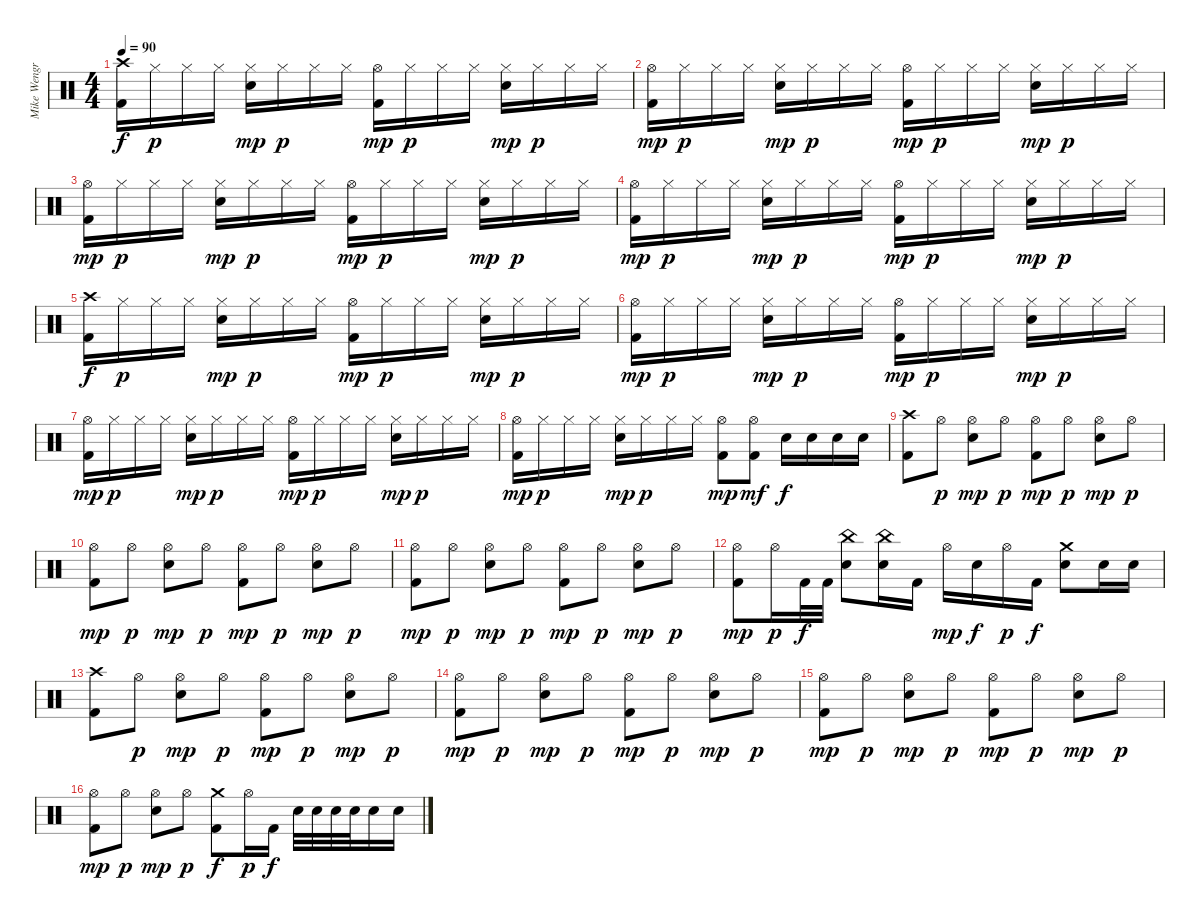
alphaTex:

\track ("Mike Wengren - Drums" "Mike Wengr") {instrument percussion}
\staff {score}
\articulation defaults
\ts (4 4)
\tempo 90
\clef neutral
\ks c
("Crash high (hit)" "Kick (hit) 2").16{dy f} "Hi-Hat (closed)".16{dy p} "Hi-Hat (closed)".16 "Hi-Hat (closed)".16 ("Hi-Hat (closed)" "Electric Snare (hit)").16{dy mp} "Hi-Hat (closed)".16{dy p} "Hi-Hat (closed)".16 "Hi-Hat (closed)".16 ("Hi-Hat (open)" "Kick (hit) 2").16{dy mp} "Hi-Hat (closed)".16{dy p} "Hi-Hat (closed)".16 "Hi-Hat (closed)".16 ("Hi-Hat (closed)" "Electric Snare (hit)").16{dy mp} "Hi-Hat (closed)".16{dy p} "Hi-Hat (closed)".16 "Hi-Hat (closed)".16 |
("Hi-Hat (open)" "Kick (hit) 2").16{dy mp} "Hi-Hat (closed)".16{dy p} "Hi-Hat (closed)".16 "Hi-Hat (closed)".16 ("Hi-Hat (closed)" "Electric Snare (hit)").16{dy mp} "Hi-Hat (closed)".16{dy p} "Hi-Hat (closed)".16 "Hi-Hat (closed)".16 ("Hi-Hat (open)" "Kick (hit) 2").16{dy mp} "Hi-Hat (closed)".16{dy p} "Hi-Hat (closed)".16 "Hi-Hat (closed)".16 ("Hi-Hat (closed)" "Electric Snare (hit)").16{dy mp} "Hi-Hat (closed)".16{dy p} "Hi-Hat (closed)".16 "Hi-Hat (closed)".16 |
("Hi-Hat (open)" "Kick (hit) 2").16{dy mp} "Hi-Hat (closed)".16{dy p} "Hi-Hat (closed)".16 "Hi-Hat (closed)".16 ("Hi-Hat (closed)" "Electric Snare (hit)").16{dy mp} "Hi-Hat (closed)".16{dy p} "Hi-Hat (closed)".16 "Hi-Hat (closed)".16 ("Hi-Hat (open)" "Kick (hit) 2").16{dy mp} "Hi-Hat (closed)".16{dy p} "Hi-Hat (closed)".16 "Hi-Hat (closed)".16 ("Hi-Hat (closed)" "Electric Snare (hit)").16{dy mp} "Hi-Hat (closed)".16{dy p} "Hi-Hat (closed)".16 "Hi-Hat (closed)".16 |
("Hi-Hat (open)" "Kick (hit) 2").16{dy mp} "Hi-Hat (closed)".16{dy p} "Hi-Hat (closed)".16 "Hi-Hat (closed)".16 ("Hi-Hat (closed)" "Electric Snare (hit)").16{dy mp} "Hi-Hat (closed)".16{dy p} "Hi-Hat (closed)".16 "Hi-Hat (closed)".16 ("Hi-Hat (open)" "Kick (hit) 2").16{dy mp} "Hi-Hat (closed)".16{dy p} "Hi-Hat (closed)".16 "Hi-Hat (closed)".16 ("Hi-Hat (closed)" "Electric Snare (hit)").16{dy mp} "Hi-Hat (closed)".16{dy p} "Hi-Hat (closed)".16 "Hi-Hat (closed)".16 |
("Crash high (hit)" "Kick (hit) 2").16{dy f} "Hi-Hat (closed)".16{dy p} "Hi-Hat (closed)".16 "Hi-Hat (closed)".16 ("Hi-Hat (closed)" "Electric Snare (hit)").16{dy mp} "Hi-Hat (closed)".16{dy p} "Hi-Hat (closed)".16 "Hi-Hat (closed)".16 ("Hi-Hat (open)" "Kick (hit) 2").16{dy mp} "Hi-Hat (closed)".16{dy p} "Hi-Hat (closed)".16 "Hi-Hat (closed)".16 ("Hi-Hat (closed)" "Electric Snare (hit)").16{dy mp} "Hi-Hat (closed)".16{dy p} "Hi-Hat (closed)".16 "Hi-Hat (closed)".16 |
("Hi-Hat (open)" "Kick (hit) 2").16{dy mp} "Hi-Hat (closed)".16{dy p} "Hi-Hat (closed)".16 "Hi-Hat (closed)".16 ("Hi-Hat (closed)" "Electric Snare (hit)").16{dy mp} "Hi-Hat (closed)".16{dy p} "Hi-Hat (closed)".16 "Hi-Hat (closed)".16 ("Hi-Hat (open)" "Kick (hit) 2").16{dy mp} "Hi-Hat (closed)".16{dy p} "Hi-Hat (closed)".16 "Hi-Hat (closed)".16 ("Hi-Hat (closed)" "Electric Snare (hit)").16{dy mp} "Hi-Hat (closed)".16{dy p} "Hi-Hat (closed)".16 "Hi-Hat (closed)".16 |
("Hi-Hat (open)" "Kick (hit) 2").16{dy mp} "Hi-Hat (closed)".16{dy p} "Hi-Hat (closed)".16 "Hi-Hat (closed)".16 ("Hi-Hat (closed)" "Electric Snare (hit)").16{dy mp} "Hi-Hat (closed)".16{dy p} "Hi-Hat (closed)".16 "Hi-Hat (closed)".16 ("Hi-Hat (open)" "Kick (hit) 2").16{dy mp} "Hi-Hat (closed)".16{dy p} "Hi-Hat (closed)".16 "Hi-Hat (closed)".16 ("Hi-Hat (closed)" "Electric Snare (hit)").16{dy mp} "Hi-Hat (closed)".16{dy p} "Hi-Hat (closed)".16 "Hi-Hat (closed)".16 |
("Hi-Hat (open)" "Kick (hit) 2").16{dy mp} "Hi-Hat (closed)".16{dy p} "Hi-Hat (closed)".16 "Hi-Hat (closed)".16 ("Hi-Hat (closed)" "Electric Snare (hit)").16{dy mp} "Hi-Hat (closed)".16{dy p} "Hi-Hat (closed)".16 "Hi-Hat (closed)".16 ("Hi-Hat (open)" "Kick (hit) 2").8{dy mp} ("Hi-Hat (open)" "Kick (hit) 2").8{dy mf} "Electric Snare (hit)".16{dy f} "Electric Snare (hit)".16 "Electric Snare (hit)".16 "Electric Snare (hit)".16 |
("Crash high (hit)" "Kick (hit) 2").8 "Hi-Hat (open)".8{dy p} ("Hi-Hat (open)" "Electric Snare (hit)").8{dy mp} "Hi-Hat (open)".8{dy p} ("Hi-Hat (open)" "Kick (hit) 2").8{dy mp} "Hi-Hat (open)".8{dy p} ("Hi-Hat (open)" "Electric Snare (hit)").8{dy mp} "Hi-Hat (open)".8{dy p} |
("Hi-Hat (open)" "Kick (hit) 2").8{dy mp} "Hi-Hat (open)".8{dy p} ("Hi-Hat (open)" "Electric Snare (hit)").8{dy mp} "Hi-Hat (open)".8{dy p} ("Hi-Hat (open)" "Kick (hit) 2").8{dy mp} "Hi-Hat (open)".8{dy p} ("Hi-Hat (open)" "Electric Snare (hit)").8{dy mp} "Hi-Hat (open)".8{dy p} |
("Hi-Hat (open)" "Kick (hit) 2").8{dy mp} "Hi-Hat (open)".8{dy p} ("Hi-Hat (open)" "Electric Snare (hit)").8{dy mp} "Hi-Hat (open)".8{dy p} ("Hi-Hat (open)" "Kick (hit) 2").8{dy mp} "Hi-Hat (open)".8{dy p} ("Hi-Hat (open)" "Electric Snare (hit)").8{dy mp} "Hi-Hat (open)".8{dy p} |
("Hi-Hat (open)" "Kick (hit) 2").8{dy mp} "Hi-Hat (open)".16{dy p} "Kick (hit) 2".32{dy f} "Kick (hit) 2".32 ("China (hit)" "Electric Snare (hit)").8 ("China (hit)" "Electric Snare (hit)").16 "Kick (hit) 2".16 "Hi-Hat (open)".16{dy mp} "Electric Snare (hit)".16{dy f} "Hi-Hat (open)".16{dy p} "Kick (hit) 2".16{dy f} ("Crash medium (hit)" "Electric Snare (hit)").8 "Electric Snare (hit)".16 "Electric Snare (hit)".16 |
("Crash high (hit)" "Kick (hit) 2").8 "Hi-Hat (open)".8{dy p} ("Hi-Hat (open)" "Electric Snare (hit)").8{dy mp} "Hi-Hat (open)".8{dy p} ("Hi-Hat (open)" "Kick (hit) 2").8{dy mp} "Hi-Hat (open)".8{dy p} ("Hi-Hat (open)" "Electric Snare (hit)").8{dy mp} "Hi-Hat (open)".8{dy p} |
("Hi-Hat (open)" "Kick (hit) 2").8{dy mp} "Hi-Hat (open)".8{dy p} ("Hi-Hat (open)" "Electric Snare (hit)").8{dy mp} "Hi-Hat (open)".8{dy p} ("Hi-Hat (open)" "Kick (hit) 2").8{dy mp} "Hi-Hat (open)".8{dy p} ("Hi-Hat (open)" "Electric Snare (hit)").8{dy mp} "Hi-Hat (open)".8{dy p} |
("Hi-Hat (open)" "Kick (hit) 2").8{dy mp} "Hi-Hat (open)".8{dy p} ("Hi-Hat (open)" "Electric Snare (hit)").8{dy mp} "Hi-Hat (open)".8{dy p} ("Hi-Hat (open)" "Kick (hit) 2").8{dy mp} "Hi-Hat (open)".8{dy p} ("Hi-Hat (open)" "Electric Snare (hit)").8{dy mp} "Hi-Hat (open)".8{dy p} |
("Hi-Hat (open)" "Kick (hit) 2").8{dy mp} "Hi-Hat (open)".8{dy p} ("Hi-Hat (open)" "Electric Snare (hit)").8{dy mp} "Hi-Hat (open)".8{dy p} ("Crash medium (hit)" "Kick (hit) 2").8{dy f} "Hi-Hat (open)".16{dy p} "Kick (hit) 2".16{dy f} "Electric Snare (hit)".32 "Electric Snare (hit)".32 "Electric Snare (hit)".32 "Electric Snare (hit)".32 "Electric Snare (hit)".16 "Electric Snare (hit)".16
